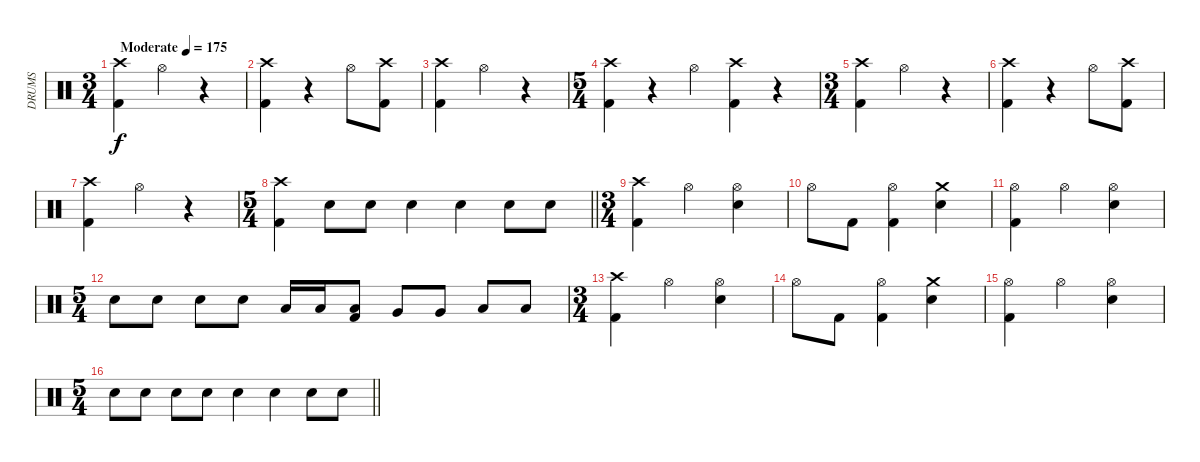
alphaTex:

\track ("DRUMS" "DRUMS") {instrument percussion}
\staff {score}
\articulation defaults
\ts (3 4)
\tempo (175 "Moderate")
\clef neutral
\ks c
("Crash high (hit)" "Kick (hit) 2").4{dy f} "Hi-Hat (open)".4 r.4 |
("Crash high (hit)" "Kick (hit) 2").4 r.4 "Hi-Hat (open)".8 ("Crash high (hit)" "Kick (hit) 2").8 |
("Crash high (hit)" "Kick (hit) 2").4 "Hi-Hat (open)".4 r.4 |
\ts (5 4)
("Crash high (hit)" "Kick (hit) 2").4 r.4 "Hi-Hat (open)".4 ("Crash high (hit)" "Kick (hit) 2").4 r.4 |
\ts (3 4)
("Crash high (hit)" "Kick (hit) 2").4 "Hi-Hat (open)".4 r.4 |
("Crash high (hit)" "Kick (hit) 2").4 r.4 "Hi-Hat (open)".8 ("Crash high (hit)" "Kick (hit) 2").8 |
("Crash high (hit)" "Kick (hit) 2").4 "Hi-Hat (open)".4 r.4 |
\ts (5 4)
\barLineRight lightlight
("Crash high (hit)" "Kick (hit) 2").4 "Snare (hit) 2".8 "Snare (hit) 2".8 "Snare (hit) 2".4 "Snare (hit) 2".4 "Snare (hit) 2".8 "Snare (hit) 2".8 |
\ts (3 4)
("Crash high (hit)" "Kick (hit) 2").4 "Hi-Hat (open)".4 ("Hi-Hat (open)" "Snare (hit) 2").4 |
"Hi-Hat (open)".8 "Kick (hit) 2".8 ("Hi-Hat (open)" "Kick (hit) 2").4 ("Crash medium (hit)" "Snare (hit) 2").4 |
("Hi-Hat (open)" "Kick (hit) 2").4 "Hi-Hat (open)".4 ("Hi-Hat (open)" "Snare (hit) 2").4 |
\ts (5 4)
"Snare (hit) 2".8 "Snare (hit) 2".8 "Snare (hit) 2".8 "Snare (hit) 2".8 "Low Tom (hit)".16 "Low Tom (hit)".16 ("Low Tom (hit)" "Kick (hit) 2").8 "Very Low Tom (hit)".8 "Very Low Tom (hit)".8 "Low Floor Tom (hit)".8 "Low Floor Tom (hit)".8 |
\ts (3 4)
("Crash high (hit)" "Kick (hit) 2").4 "Hi-Hat (open)".4 ("Hi-Hat (open)" "Snare (hit) 2").4 |
"Hi-Hat (open)".8 "Kick (hit) 2".8 ("Hi-Hat (open)" "Kick (hit) 2").4 ("Crash medium (hit)" "Snare (hit) 2").4 |
("Hi-Hat (open)" "Kick (hit) 2").4 "Hi-Hat (open)".4 ("Hi-Hat (open)" "Snare (hit) 2").4 |
\ts (5 4)
\barLineRight lightlight "Snare (hit) 2".8 "Snare (hit) 2".8 "Snare (hit) 2".8 "Snare (hit) 2".8 "Snare (hit) 2".4 "Snare (hit) 2".4 "Snare (hit) 2".8 "Snare (hit) 2".8
